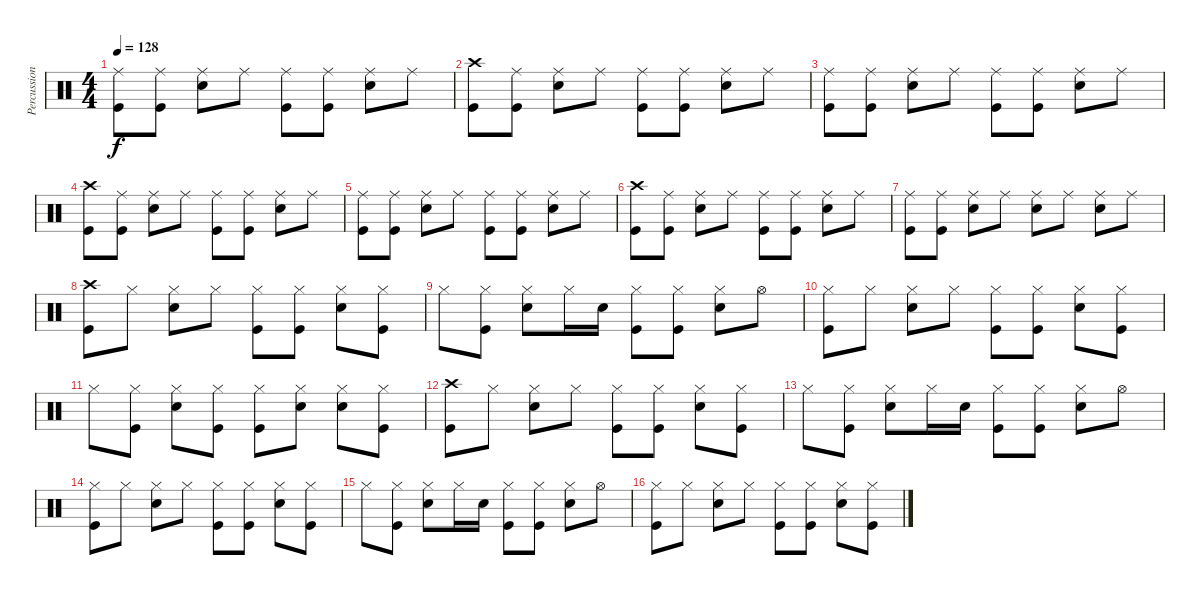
\track ("Percussion" "Percussion") {instrument percussion}
\staff {score}
\articulation defaults
\ts (4 4)
\tempo 128
\clef neutral
\ks c
("Ride (middle)" "Kick (hit)").8{dy f} ("Ride (middle)" "Kick (hit)").8 ("Ride (middle)" "Snare (hit) 2").8 "Ride (middle)".8 ("Ride (middle)" "Kick (hit)").8 ("Ride (middle)" "Kick (hit)").8 ("Ride (middle)" "Snare (hit) 2").8 "Ride (middle)".8 |
("Crash high (hit)" "Kick (hit)").8 ("Ride (middle)" "Kick (hit)").8 ("Ride (middle)" "Snare (hit) 2").8 "Ride (middle)".8 ("Ride (middle)" "Kick (hit)").8 ("Ride (middle)" "Kick (hit)").8 ("Ride (middle)" "Snare (hit) 2").8 "Ride (middle)".8 |
("Ride (middle)" "Kick (hit)").8 ("Ride (middle)" "Kick (hit)").8 ("Ride (middle)" "Snare (hit) 2").8 "Ride (middle)".8 ("Ride (middle)" "Kick (hit)").8 ("Ride (middle)" "Kick (hit)").8 ("Ride (middle)" "Snare (hit) 2").8 "Ride (middle)".8 |
("Crash high (hit)" "Kick (hit)").8 ("Ride (middle)" "Kick (hit)").8 ("Ride (middle)" "Snare (hit) 2").8 "Ride (middle)".8 ("Ride (middle)" "Kick (hit)").8 ("Ride (middle)" "Kick (hit)").8 ("Ride (middle)" "Snare (hit) 2").8 "Ride (middle)".8 |
("Ride (middle)" "Kick (hit)").8 ("Ride (middle)" "Kick (hit)").8 ("Ride (middle)" "Snare (hit) 2").8 "Ride (middle)".8 ("Ride (middle)" "Kick (hit)").8 ("Ride (middle)" "Kick (hit)").8 ("Ride (middle)" "Snare (hit) 2").8 "Ride (middle)".8 |
("Crash high (hit)" "Kick (hit)").8 ("Ride (middle)" "Kick (hit)").8 ("Ride (middle)" "Snare (hit) 2").8 "Ride (middle)".8 ("Ride (middle)" "Kick (hit)").8 ("Ride (middle)" "Kick (hit)").8 ("Ride (middle)" "Snare (hit) 2").8 "Ride (middle)".8 |
("Ride (middle)" "Kick (hit)").8 ("Ride (middle)" "Kick (hit)").8 ("Ride (middle)" "Snare (hit) 2").8 "Ride (middle)".8 ("Ride (middle)" "Snare (hit) 2").8 "Ride (middle)".8 ("Ride (middle)" "Snare (hit) 2").8 "Ride (middle)".8 |
("Crash high (hit)" "Kick (hit)").8 "Hi-Hat (closed)".8 ("Hi-Hat (closed)" "Snare (hit) 2").8 "Hi-Hat (closed)".8 ("Hi-Hat (closed)" "Kick (hit)").8 ("Hi-Hat (closed)" "Kick (hit)").8 ("Hi-Hat (closed)" "Snare (hit) 2").8 ("Hi-Hat (closed)" "Kick (hit)").8 |
"Hi-Hat (closed)".8 ("Hi-Hat (closed)" "Kick (hit)").8 ("Hi-Hat (closed)" "Snare (hit) 2").8 "Hi-Hat (closed)".16 "Snare (hit) 2".16 ("Hi-Hat (closed)" "Kick (hit)").8 ("Hi-Hat (closed)" "Kick (hit)").8 ("Hi-Hat (closed)" "Snare (hit) 2").8 "Hi-Hat (open)".8 |
("Hi-Hat (closed)" "Kick (hit)").8 "Hi-Hat (closed)".8 ("Hi-Hat (closed)" "Snare (hit) 2").8 "Hi-Hat (closed)".8 ("Hi-Hat (closed)" "Kick (hit)").8 ("Hi-Hat (closed)" "Kick (hit)").8 ("Hi-Hat (closed)" "Snare (hit) 2").8 ("Hi-Hat (closed)" "Kick (hit)").8 |
"Hi-Hat (closed)".8 ("Hi-Hat (closed)" "Kick (hit)").8 ("Hi-Hat (closed)" "Snare (hit) 2").8 ("Hi-Hat (closed)" "Kick (hit)").8 ("Hi-Hat (closed)" "Kick (hit)").8 ("Hi-Hat (closed)" "Snare (hit) 2").8 ("Hi-Hat (closed)" "Snare (hit) 2").8 ("Hi-Hat (closed)" "Kick (hit)").8 |
("Crash high (hit)" "Kick (hit)").8 "Hi-Hat (closed)".8 ("Hi-Hat (closed)" "Snare (hit) 2").8 "Hi-Hat (closed)".8 ("Hi-Hat (closed)" "Kick (hit)").8 ("Hi-Hat (closed)" "Kick (hit)").8 ("Hi-Hat (closed)" "Snare (hit) 2").8 ("Hi-Hat (closed)" "Kick (hit)").8 |
"Hi-Hat (closed)".8 ("Hi-Hat (closed)" "Kick (hit)").8 ("Hi-Hat (closed)" "Snare (hit) 2").8 "Hi-Hat (closed)".16 "Snare (hit) 2".16 ("Hi-Hat (closed)" "Kick (hit)").8 ("Hi-Hat (closed)" "Kick (hit)").8 ("Hi-Hat (closed)" "Snare (hit) 2").8 "Hi-Hat (open)".8 |
("Hi-Hat (closed)" "Kick (hit)").8 "Hi-Hat (closed)".8 ("Hi-Hat (closed)" "Snare (hit) 2").8 "Hi-Hat (closed)".8 ("Hi-Hat (closed)" "Kick (hit)").8 ("Hi-Hat (closed)" "Kick (hit)").8 ("Hi-Hat (closed)" "Snare (hit) 2").8 ("Hi-Hat (closed)" "Kick (hit)").8 |
"Hi-Hat (closed)".8 ("Hi-Hat (closed)" "Kick (hit)").8 ("Hi-Hat (closed)" "Snare (hit) 2").8 "Hi-Hat (closed)".16 "Snare (hit) 2".16 ("Hi-Hat (closed)" "Kick (hit)").8 ("Hi-Hat (closed)" "Kick (hit)").8 ("Hi-Hat (closed)" "Snare (hit) 2").8 "Hi-Hat (open)".8 |
("Hi-Hat (closed)" "Kick (hit)").8 "Hi-Hat (closed)".8 ("Hi-Hat (closed)" "Snare (hit) 2").8 "Hi-Hat (closed)".8 ("Hi-Hat (closed)" "Kick (hit)").8 ("Hi-Hat (closed)" "Kick (hit)").8 ("Hi-Hat (closed)" "Snare (hit) 2").8 ("Hi-Hat (closed)" "Kick (hit)").8
